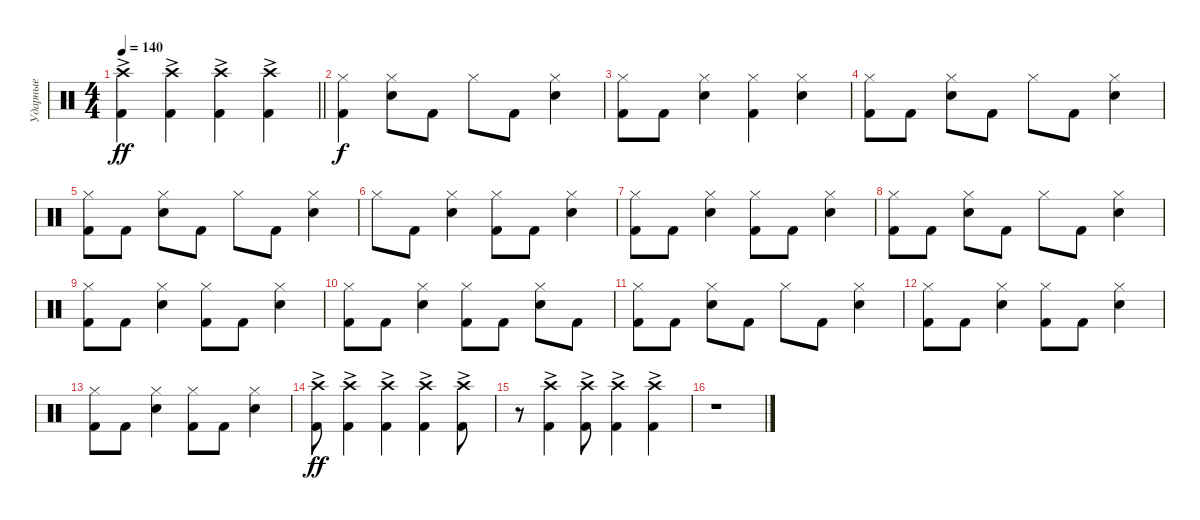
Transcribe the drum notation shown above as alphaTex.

\track ("Ударные" "Ударные") {instrument percussion}
\staff {score}
\articulation defaults
\ts (4 4)
\tempo 140
\clef neutral
\barLineRight lightlight
\ks c
("Kick (hit) 2" "Crash high (hit)"{ac}).4{dy ff} ("Kick (hit) 2" "Crash high (hit)"{ac}).4 ("Kick (hit) 2" "Crash high (hit)"{ac}).4 ("Kick (hit) 2" "Crash high (hit)"{ac}).4 |
("Kick (hit) 2" "Hi-Hat (closed)").4{dy f} ("Snare (hit) 2" "Hi-Hat (closed)").8 "Kick (hit) 2".8 "Hi-Hat (closed)".8 "Kick (hit) 2".8 ("Snare (hit) 2" "Hi-Hat (closed)").4 |
("Kick (hit) 2" "Hi-Hat (closed)").8 "Kick (hit) 2".8 ("Snare (hit) 2" "Hi-Hat (closed)").4 ("Kick (hit) 2" "Hi-Hat (closed)").4 ("Snare (hit) 2" "Hi-Hat (closed)").4 |
("Kick (hit) 2" "Hi-Hat (closed)").8 "Kick (hit) 2".8 ("Snare (hit) 2" "Hi-Hat (closed)").8 "Kick (hit) 2".8 "Hi-Hat (closed)".8 "Kick (hit) 2".8 ("Snare (hit) 2" "Hi-Hat (closed)").4 |
("Kick (hit) 2" "Hi-Hat (closed)").8 "Kick (hit) 2".8 ("Snare (hit) 2" "Hi-Hat (closed)").8 "Kick (hit) 2".8 "Hi-Hat (closed)".8 "Kick (hit) 2".8 ("Snare (hit) 2" "Hi-Hat (closed)").4 |
"Hi-Hat (closed)".8 "Kick (hit) 2".8 ("Snare (hit) 2" "Hi-Hat (closed)").4 ("Kick (hit) 2" "Hi-Hat (closed)").8 "Kick (hit) 2".8 ("Snare (hit) 2" "Hi-Hat (closed)").4 |
("Kick (hit) 2" "Hi-Hat (closed)").8 "Kick (hit) 2".8 ("Snare (hit) 2" "Hi-Hat (closed)").4 ("Kick (hit) 2" "Hi-Hat (closed)").8 "Kick (hit) 2".8 ("Snare (hit) 2" "Hi-Hat (closed)").4 |
("Kick (hit) 2" "Hi-Hat (closed)").8 "Kick (hit) 2".8 ("Snare (hit) 2" "Hi-Hat (closed)").8 "Kick (hit) 2".8 "Hi-Hat (closed)".8 "Kick (hit) 2".8 ("Snare (hit) 2" "Hi-Hat (closed)").4 |
("Kick (hit) 2" "Hi-Hat (closed)").8 "Kick (hit) 2".8 ("Snare (hit) 2" "Hi-Hat (closed)").4 ("Kick (hit) 2" "Hi-Hat (closed)").8 "Kick (hit) 2".8 ("Snare (hit) 2" "Hi-Hat (closed)").4 |
("Kick (hit) 2" "Hi-Hat (closed)").8 "Kick (hit) 2".8 ("Snare (hit) 2" "Hi-Hat (closed)").4 ("Kick (hit) 2" "Hi-Hat (closed)").8 "Kick (hit) 2".8 ("Snare (hit) 2" "Hi-Hat (closed)").8 "Kick (hit) 2".8 |
("Kick (hit) 2" "Hi-Hat (closed)").8 "Kick (hit) 2".8 ("Snare (hit) 2" "Hi-Hat (closed)").8 "Kick (hit) 2".8 "Hi-Hat (closed)".8 "Kick (hit) 2".8 ("Snare (hit) 2" "Hi-Hat (closed)").4 |
("Kick (hit) 2" "Hi-Hat (closed)").8 "Kick (hit) 2".8 ("Snare (hit) 2" "Hi-Hat (closed)").4 ("Kick (hit) 2" "Hi-Hat (closed)").8 "Kick (hit) 2".8 ("Snare (hit) 2" "Hi-Hat (closed)").4 |
("Kick (hit) 2" "Hi-Hat (closed)").8 "Kick (hit) 2".8 ("Snare (hit) 2" "Hi-Hat (closed)").4 ("Kick (hit) 2" "Hi-Hat (closed)").8 "Kick (hit) 2".8 ("Snare (hit) 2" "Hi-Hat (closed)").4 |
("Kick (hit) 2" "Crash high (hit)"{ac}).8{dy ff} ("Kick (hit) 2" "Crash high (hit)"{ac}).4 ("Kick (hit) 2" "Crash high (hit)"{ac}).4 ("Kick (hit) 2" "Crash high (hit)"{ac}).4 ("Kick (hit) 2" "Crash high (hit)"{ac}).8 |
r.8 ("Kick (hit) 2" "Crash high (hit)"{ac}).4 ("Kick (hit) 2" "Crash high (hit)"{ac}).8 ("Kick (hit) 2" "Crash high (hit)"{ac}).4 ("Kick (hit) 2" "Crash high (hit)"{ac}).4 |
r.1
